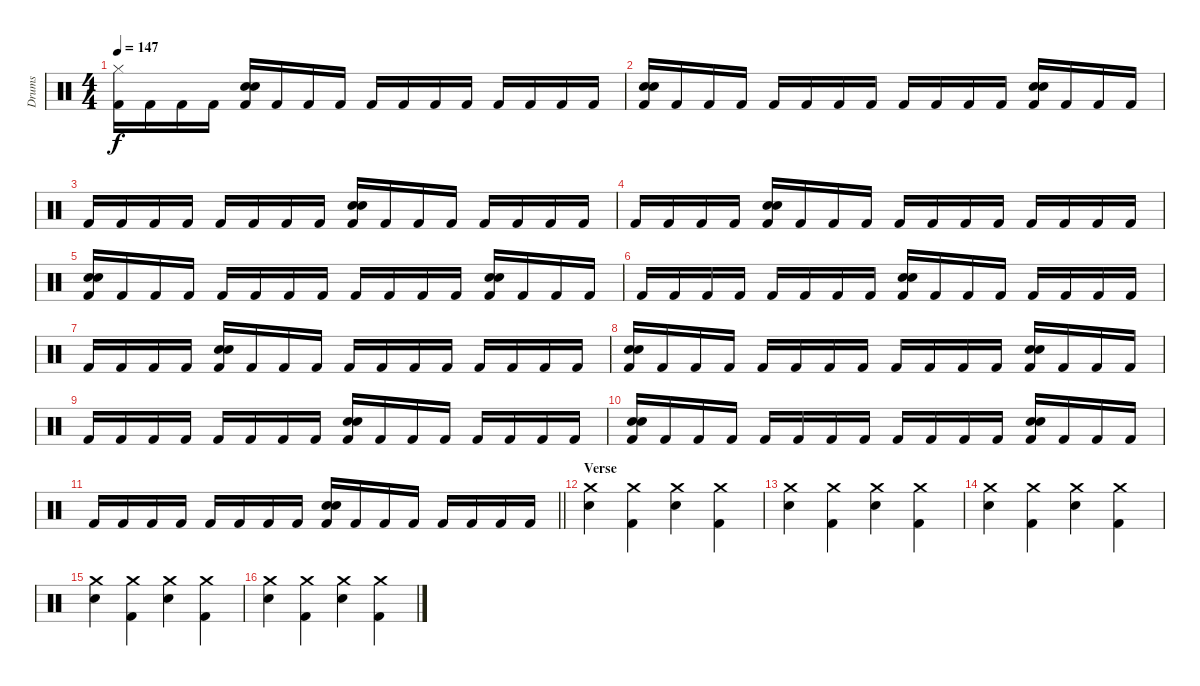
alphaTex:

\track ("Drums" "Drums") {instrument percussion}
\staff
\articulation defaults
\ts (4 4)
\tempo 147
\clef neutral
\ks c
("Hi-Hat (closed)" "Kick (hit) 2").16{dy f} "Kick (hit) 2".16 "Kick (hit) 2".16 "Kick (hit) 2".16 ("Kick (hit) 2" "Electric Snare (hit)" "Snare (hit) 2").16 "Kick (hit) 2".16 "Kick (hit) 2".16 "Kick (hit) 2".16 "Kick (hit) 2".16 "Kick (hit) 2".16 "Kick (hit) 2".16 "Kick (hit) 2".16 "Kick (hit) 2".16 "Kick (hit) 2".16 "Kick (hit) 2".16 "Kick (hit) 2".16 |
("Kick (hit) 2" "Electric Snare (hit)" "Snare (hit) 2").16 "Kick (hit) 2".16 "Kick (hit) 2".16 "Kick (hit) 2".16 "Kick (hit) 2".16 "Kick (hit) 2".16 "Kick (hit) 2".16 "Kick (hit) 2".16 "Kick (hit) 2".16 "Kick (hit) 2".16 "Kick (hit) 2".16 "Kick (hit) 2".16 ("Kick (hit) 2" "Electric Snare (hit)" "Snare (hit) 2").16 "Kick (hit) 2".16 "Kick (hit) 2".16 "Kick (hit) 2".16 |
"Kick (hit) 2".16 "Kick (hit) 2".16 "Kick (hit) 2".16 "Kick (hit) 2".16 "Kick (hit) 2".16 "Kick (hit) 2".16 "Kick (hit) 2".16 "Kick (hit) 2".16 ("Kick (hit) 2" "Electric Snare (hit)" "Snare (hit) 2").16 "Kick (hit) 2".16 "Kick (hit) 2".16 "Kick (hit) 2".16 "Kick (hit) 2".16 "Kick (hit) 2".16 "Kick (hit) 2".16 "Kick (hit) 2".16 |
"Kick (hit) 2".16 "Kick (hit) 2".16 "Kick (hit) 2".16 "Kick (hit) 2".16 ("Kick (hit) 2" "Electric Snare (hit)" "Snare (hit) 2").16 "Kick (hit) 2".16 "Kick (hit) 2".16 "Kick (hit) 2".16 "Kick (hit) 2".16 "Kick (hit) 2".16 "Kick (hit) 2".16 "Kick (hit) 2".16 "Kick (hit) 2".16 "Kick (hit) 2".16 "Kick (hit) 2".16 "Kick (hit) 2".16 |
("Kick (hit) 2" "Electric Snare (hit)" "Snare (hit) 2").16 "Kick (hit) 2".16 "Kick (hit) 2".16 "Kick (hit) 2".16 "Kick (hit) 2".16 "Kick (hit) 2".16 "Kick (hit) 2".16 "Kick (hit) 2".16 "Kick (hit) 2".16 "Kick (hit) 2".16 "Kick (hit) 2".16 "Kick (hit) 2".16 ("Kick (hit) 2" "Electric Snare (hit)" "Snare (hit) 2").16 "Kick (hit) 2".16 "Kick (hit) 2".16 "Kick (hit) 2".16 |
"Kick (hit) 2".16 "Kick (hit) 2".16 "Kick (hit) 2".16 "Kick (hit) 2".16 "Kick (hit) 2".16 "Kick (hit) 2".16 "Kick (hit) 2".16 "Kick (hit) 2".16 ("Kick (hit) 2" "Electric Snare (hit)" "Snare (hit) 2").16 "Kick (hit) 2".16 "Kick (hit) 2".16 "Kick (hit) 2".16 "Kick (hit) 2".16 "Kick (hit) 2".16 "Kick (hit) 2".16 "Kick (hit) 2".16 |
"Kick (hit) 2".16 "Kick (hit) 2".16 "Kick (hit) 2".16 "Kick (hit) 2".16 ("Kick (hit) 2" "Electric Snare (hit)" "Snare (hit) 2").16 "Kick (hit) 2".16 "Kick (hit) 2".16 "Kick (hit) 2".16 "Kick (hit) 2".16 "Kick (hit) 2".16 "Kick (hit) 2".16 "Kick (hit) 2".16 "Kick (hit) 2".16 "Kick (hit) 2".16 "Kick (hit) 2".16 "Kick (hit) 2".16 |
("Kick (hit) 2" "Electric Snare (hit)" "Snare (hit) 2").16 "Kick (hit) 2".16 "Kick (hit) 2".16 "Kick (hit) 2".16 "Kick (hit) 2".16 "Kick (hit) 2".16 "Kick (hit) 2".16 "Kick (hit) 2".16 "Kick (hit) 2".16 "Kick (hit) 2".16 "Kick (hit) 2".16 "Kick (hit) 2".16 ("Kick (hit) 2" "Electric Snare (hit)" "Snare (hit) 2").16 "Kick (hit) 2".16 "Kick (hit) 2".16 "Kick (hit) 2".16 |
"Kick (hit) 2".16 "Kick (hit) 2".16 "Kick (hit) 2".16 "Kick (hit) 2".16 "Kick (hit) 2".16 "Kick (hit) 2".16 "Kick (hit) 2".16 "Kick (hit) 2".16 ("Kick (hit) 2" "Electric Snare (hit)" "Snare (hit) 2").16 "Kick (hit) 2".16 "Kick (hit) 2".16 "Kick (hit) 2".16 "Kick (hit) 2".16 "Kick (hit) 2".16 "Kick (hit) 2".16 "Kick (hit) 2".16 |
("Kick (hit) 2" "Electric Snare (hit)" "Snare (hit) 2").16 "Kick (hit) 2".16 "Kick (hit) 2".16 "Kick (hit) 2".16 "Kick (hit) 2".16 "Kick (hit) 2".16 "Kick (hit) 2".16 "Kick (hit) 2".16 "Kick (hit) 2".16 "Kick (hit) 2".16 "Kick (hit) 2".16 "Kick (hit) 2".16 ("Kick (hit) 2" "Electric Snare (hit)" "Snare (hit) 2").16 "Kick (hit) 2".16 "Kick (hit) 2".16 "Kick (hit) 2".16 |
\barLineRight lightlight "Kick (hit) 2".16 "Kick (hit) 2".16 "Kick (hit) 2".16 "Kick (hit) 2".16 "Kick (hit) 2".16 "Kick (hit) 2".16 "Kick (hit) 2".16 "Kick (hit) 2".16
("Kick (hit) 2" "Electric Snare (hit)" "Snare (hit) 2").16 "Kick (hit) 2".16 "Kick (hit) 2".16 "Kick (hit) 2".16 "Kick (hit) 2".16 "Kick (hit) 2".16 "Kick (hit) 2".16 "Kick (hit) 2".16 |
\section ("" "Verse")
("Crash medium (hit)" "Electric Snare (hit)").4 ("Crash medium (hit)" "Kick (hit) 2").4 ("Crash medium (hit)" "Electric Snare (hit)").4 ("Crash medium (hit)" "Kick (hit) 2").4 |
("Crash medium (hit)" "Electric Snare (hit)").4 ("Crash medium (hit)" "Kick (hit) 2").4 ("Crash medium (hit)" "Electric Snare (hit)").4 ("Crash medium (hit)" "Kick (hit) 2").4 |
("Crash medium (hit)" "Electric Snare (hit)").4 ("Crash medium (hit)" "Kick (hit) 2").4 ("Crash medium (hit)" "Electric Snare (hit)").4 ("Crash medium (hit)" "Kick (hit) 2").4 |
("Crash medium (hit)" "Electric Snare (hit)").4 ("Crash medium (hit)" "Kick (hit) 2").4 ("Crash medium (hit)" "Electric Snare (hit)").4 ("Crash medium (hit)" "Kick (hit) 2").4 |
("Crash medium (hit)" "Electric Snare (hit)").4 ("Crash medium (hit)" "Kick (hit) 2").4 ("Crash medium (hit)" "Electric Snare (hit)").4 ("Crash medium (hit)" "Kick (hit) 2").4
